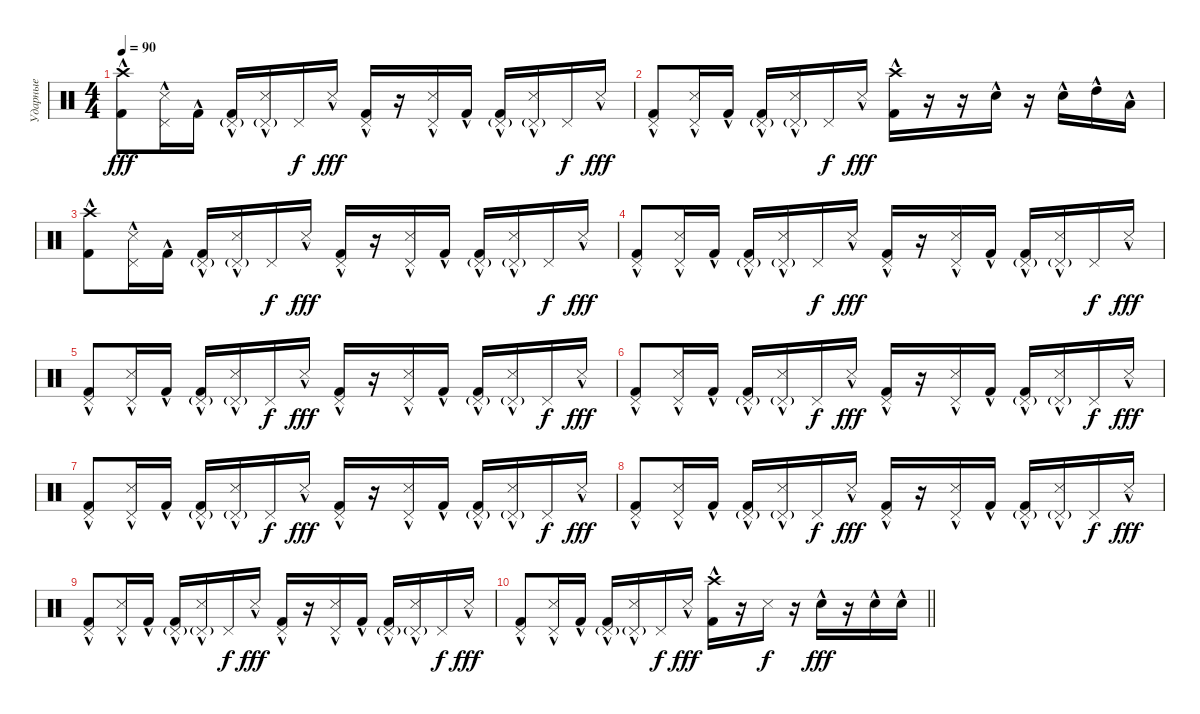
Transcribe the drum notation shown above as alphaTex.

\track ("Ударные" "Ударные") {instrument percussion}
\staff {score}
\articulation defaults
\ts (4 4)
\tempo 90
\clef neutral
\ks c
("Crash high (hit)" "Kick (hit) 2"{hac}).8{dy fff} ("Pedal Hi-Hat (hit)" "Snare (side stick) 3"{hac}).16 "Kick (hit) 2"{hac}.16 ("Pedal Hi-Hat (hit)"{g} "Kick (hit) 2"{hac}).16 ("Pedal Hi-Hat (hit)"{g} "Snare (side stick) 3"{hac}).16 "Pedal Hi-Hat (hit)".16{dy f} "Snare (side stick) 3"{hac}.16{dy fff} ("Pedal Hi-Hat (hit)" "Kick (hit) 2"{hac}).16 r.16 ("Pedal Hi-Hat (hit)" "Snare (side stick) 3"{hac}).16 "Kick (hit) 2"{hac}.16 ("Pedal Hi-Hat (hit)"{g} "Kick (hit) 2"{hac}).16 ("Pedal Hi-Hat (hit)"{g} "Snare (side stick) 3"{hac}).16 "Pedal Hi-Hat (hit)".16{dy f} "Snare (side stick) 3"{hac}.16{dy fff} |
("Pedal Hi-Hat (hit)" "Kick (hit) 2"{hac}).8 ("Pedal Hi-Hat (hit)" "Snare (side stick) 3"{hac}).16 "Kick (hit) 2"{hac}.16 ("Pedal Hi-Hat (hit)"{g} "Kick (hit) 2"{hac}).16 ("Pedal Hi-Hat (hit)"{g} "Snare (side stick) 3"{hac}).16 "Pedal Hi-Hat (hit)".16{dy f} "Snare (side stick) 3"{hac}.16{dy fff} ("Crash high (hit)" "Kick (hit) 2"{hac}).16 r.16 r.16 "Electric Snare (hit)"{hac}.16 r.16 "Electric Snare (hit)"{hac}.16 "High Tom (hit)"{hac}.16 "Low Tom (hit)"{hac}.16 |
("Crash high (hit)" "Kick (hit) 2"{hac}).8 ("Pedal Hi-Hat (hit)" "Snare (side stick) 3"{hac}).16 "Kick (hit) 2"{hac}.16 ("Pedal Hi-Hat (hit)"{g} "Kick (hit) 2"{hac}).16 ("Pedal Hi-Hat (hit)"{g} "Snare (side stick) 3"{hac}).16 "Pedal Hi-Hat (hit)".16{dy f} "Snare (side stick) 3"{hac}.16{dy fff} ("Pedal Hi-Hat (hit)" "Kick (hit) 2"{hac}).16 r.16 ("Pedal Hi-Hat (hit)" "Snare (side stick) 3"{hac}).16 "Kick (hit) 2"{hac}.16 ("Pedal Hi-Hat (hit)"{g} "Kick (hit) 2"{hac}).16 ("Pedal Hi-Hat (hit)"{g} "Snare (side stick) 3"{hac}).16 "Pedal Hi-Hat (hit)".16{dy f} "Snare (side stick) 3"{hac}.16{dy fff} |
("Pedal Hi-Hat (hit)" "Kick (hit) 2"{hac}).8 ("Pedal Hi-Hat (hit)" "Snare (side stick) 3"{hac}).16 "Kick (hit) 2"{hac}.16 ("Pedal Hi-Hat (hit)"{g} "Kick (hit) 2"{hac}).16 ("Pedal Hi-Hat (hit)"{g} "Snare (side stick) 3"{hac}).16 "Pedal Hi-Hat (hit)".16{dy f} "Snare (side stick) 3"{hac}.16{dy fff} ("Pedal Hi-Hat (hit)" "Kick (hit) 2"{hac}).16 r.16 ("Pedal Hi-Hat (hit)" "Snare (side stick) 3"{hac}).16 "Kick (hit) 2"{hac}.16 ("Pedal Hi-Hat (hit)"{g} "Kick (hit) 2"{hac}).16 ("Pedal Hi-Hat (hit)"{g} "Snare (side stick) 3"{hac}).16 "Pedal Hi-Hat (hit)".16{dy f} "Snare (side stick) 3"{hac}.16{dy fff} |
("Pedal Hi-Hat (hit)" "Kick (hit) 2"{hac}).8 ("Pedal Hi-Hat (hit)" "Snare (side stick) 3"{hac}).16 "Kick (hit) 2"{hac}.16 ("Pedal Hi-Hat (hit)"{g} "Kick (hit) 2"{hac}).16 ("Pedal Hi-Hat (hit)"{g} "Snare (side stick) 3"{hac}).16 "Pedal Hi-Hat (hit)".16{dy f} "Snare (side stick) 3"{hac}.16{dy fff} ("Pedal Hi-Hat (hit)" "Kick (hit) 2"{hac}).16 r.16 ("Pedal Hi-Hat (hit)" "Snare (side stick) 3"{hac}).16 "Kick (hit) 2"{hac}.16 ("Pedal Hi-Hat (hit)"{g} "Kick (hit) 2"{hac}).16 ("Pedal Hi-Hat (hit)"{g} "Snare (side stick) 3"{hac}).16 "Pedal Hi-Hat (hit)".16{dy f} "Snare (side stick) 3"{hac}.16{dy fff} |
("Pedal Hi-Hat (hit)" "Kick (hit) 2"{hac}).8 ("Pedal Hi-Hat (hit)" "Snare (side stick) 3"{hac}).16 "Kick (hit) 2"{hac}.16 ("Pedal Hi-Hat (hit)"{g} "Kick (hit) 2"{hac}).16 ("Pedal Hi-Hat (hit)"{g} "Snare (side stick) 3"{hac}).16 "Pedal Hi-Hat (hit)".16{dy f} "Snare (side stick) 3"{hac}.16{dy fff} ("Pedal Hi-Hat (hit)" "Kick (hit) 2"{hac}).16 r.16 ("Pedal Hi-Hat (hit)" "Snare (side stick) 3"{hac}).16 "Kick (hit) 2"{hac}.16 ("Pedal Hi-Hat (hit)"{g} "Kick (hit) 2"{hac}).16 ("Pedal Hi-Hat (hit)"{g} "Snare (side stick) 3"{hac}).16 "Pedal Hi-Hat (hit)".16{dy f} "Snare (side stick) 3"{hac}.16{dy fff} |
("Pedal Hi-Hat (hit)" "Kick (hit) 2"{hac}).8 ("Pedal Hi-Hat (hit)" "Snare (side stick) 3"{hac}).16 "Kick (hit) 2"{hac}.16 ("Pedal Hi-Hat (hit)"{g} "Kick (hit) 2"{hac}).16 ("Pedal Hi-Hat (hit)"{g} "Snare (side stick) 3"{hac}).16 "Pedal Hi-Hat (hit)".16{dy f} "Snare (side stick) 3"{hac}.16{dy fff} ("Pedal Hi-Hat (hit)" "Kick (hit) 2"{hac}).16 r.16 ("Pedal Hi-Hat (hit)" "Snare (side stick) 3"{hac}).16 "Kick (hit) 2"{hac}.16 ("Pedal Hi-Hat (hit)"{g} "Kick (hit) 2"{hac}).16 ("Pedal Hi-Hat (hit)"{g} "Snare (side stick) 3"{hac}).16 "Pedal Hi-Hat (hit)".16{dy f} "Snare (side stick) 3"{hac}.16{dy fff} |
("Pedal Hi-Hat (hit)" "Kick (hit) 2"{hac}).8 ("Pedal Hi-Hat (hit)" "Snare (side stick) 3"{hac}).16 "Kick (hit) 2"{hac}.16 ("Pedal Hi-Hat (hit)"{g} "Kick (hit) 2"{hac}).16 ("Pedal Hi-Hat (hit)"{g} "Snare (side stick) 3"{hac}).16 "Pedal Hi-Hat (hit)".16{dy f} "Snare (side stick) 3"{hac}.16{dy fff} ("Pedal Hi-Hat (hit)" "Kick (hit) 2"{hac}).16 r.16 ("Pedal Hi-Hat (hit)" "Snare (side stick) 3"{hac}).16 "Kick (hit) 2"{hac}.16 ("Pedal Hi-Hat (hit)"{g} "Kick (hit) 2"{hac}).16 ("Pedal Hi-Hat (hit)"{g} "Snare (side stick) 3"{hac}).16 "Pedal Hi-Hat (hit)".16{dy f} "Snare (side stick) 3"{hac}.16{dy fff} |
("Pedal Hi-Hat (hit)" "Kick (hit) 2"{hac}).8 ("Pedal Hi-Hat (hit)" "Snare (side stick) 3"{hac}).16 "Kick (hit) 2"{hac}.16 ("Pedal Hi-Hat (hit)"{g} "Kick (hit) 2"{hac}).16 ("Pedal Hi-Hat (hit)"{g} "Snare (side stick) 3"{hac}).16 "Pedal Hi-Hat (hit)".16{dy f} "Snare (side stick) 3"{hac}.16{dy fff} ("Pedal Hi-Hat (hit)" "Kick (hit) 2"{hac}).16 r.16 ("Pedal Hi-Hat (hit)" "Snare (side stick) 3"{hac}).16 "Kick (hit) 2"{hac}.16 ("Pedal Hi-Hat (hit)"{g} "Kick (hit) 2"{hac}).16 ("Pedal Hi-Hat (hit)"{g} "Snare (side stick) 3"{hac}).16 "Pedal Hi-Hat (hit)".16{dy f} "Snare (side stick) 3"{hac}.16{dy fff} |
\barLineRight lightlight
("Pedal Hi-Hat (hit)" "Kick (hit) 2"{hac}).8 ("Pedal Hi-Hat (hit)" "Snare (side stick) 3"{hac}).16 "Kick (hit) 2"{hac}.16 ("Pedal Hi-Hat (hit)"{g} "Kick (hit) 2"{hac}).16 ("Pedal Hi-Hat (hit)"{g} "Snare (side stick) 3"{hac}).16 "Pedal Hi-Hat (hit)".16{dy f} "Snare (side stick) 3"{hac}.16{dy fff} ("Crash high (hit)" "Kick (hit) 2"{hac}).16 r.16 "Snare (side stick) 3".16{dy f} r.16 "Electric Snare (hit)"{hac}.16{dy fff} r.16 "Electric Snare (hit)"{hac}.16 "Electric Snare (hit)"{hac}.16
